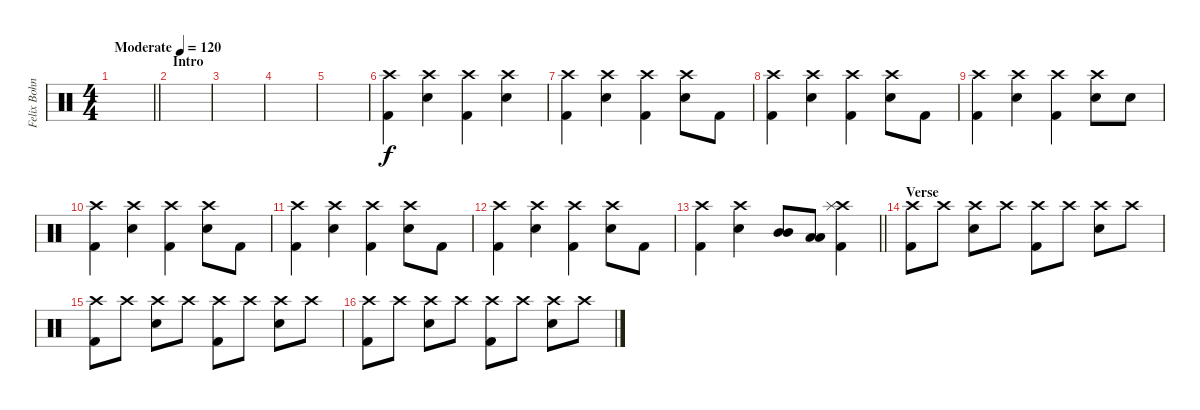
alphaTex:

\track ("Felix Bohnke (Drums)" "Felix Bohn") {instrument percussion}
\staff {score}
\articulation defaults
\ts (4 4)
\tempo (120 "Moderate")
\clef neutral
\barLineRight lightlight
\ks c
|
\section ("" "Intro")
|
|
|
|
("Crash high (hit)" "Kick (hit) 2").4 ("Crash high (hit)" "Snare (hit) 2").4 ("Crash high (hit)" "Kick (hit) 2").4 ("Crash high (hit)" "Snare (hit) 2").4 |
("Crash high (hit)" "Kick (hit) 2").4 ("Crash high (hit)" "Snare (hit) 2").4 ("Crash high (hit)" "Kick (hit) 2").4 ("Crash high (hit)" "Snare (hit) 2").8 "Kick (hit) 2".8 |
("Crash high (hit)" "Kick (hit) 2").4 ("Crash high (hit)" "Snare (hit) 2").4 ("Crash high (hit)" "Kick (hit) 2").4 ("Crash high (hit)" "Snare (hit) 2").8 "Kick (hit) 2".8 |
("Crash high (hit)" "Kick (hit) 2").4 ("Crash high (hit)" "Snare (hit) 2").4 ("Crash high (hit)" "Kick (hit) 2").4 ("Crash high (hit)" "Snare (hit) 2").8 "Snare (hit) 2".8 |
("Crash high (hit)" "Kick (hit) 2").4 ("Crash high (hit)" "Snare (hit) 2").4 ("Crash high (hit)" "Kick (hit) 2").4 ("Crash high (hit)" "Snare (hit) 2").8 "Kick (hit) 2".8 |
("Crash high (hit)" "Kick (hit) 2").4 ("Crash high (hit)" "Snare (hit) 2").4 ("Crash high (hit)" "Kick (hit) 2").4 ("Crash high (hit)" "Snare (hit) 2").8 "Kick (hit) 2".8 |
("Crash high (hit)" "Kick (hit) 2").4 ("Crash high (hit)" "Snare (hit) 2").4 ("Crash high (hit)" "Kick (hit) 2").4 ("Crash high (hit)" "Snare (hit) 2").8 "Kick (hit) 2".8 |
\barLineRight lightlight
("Crash high (hit)" "Kick (hit) 2").4 ("Crash high (hit)" "Snare (hit) 2").4 ("Mid Tom (hit)" "Mid Tom (hit)").8 ("Low Tom (hit)" "Low Tom (hit)").8 ("Crash high (hit)" "Splash (hit)" "Kick (hit) 2").4 |
\section ("" "Verse")
("Crash high (hit)" "Kick (hit) 2").8 "Crash high (hit)".8 ("Crash high (hit)" "Snare (hit) 2").8 "Crash high (hit)".8 ("Crash high (hit)" "Kick (hit) 2").8 "Crash high (hit)".8 ("Crash high (hit)" "Snare (hit) 2").8 "Crash high (hit)".8 |
("Crash high (hit)" "Kick (hit) 2").8 "Crash high (hit)".8 ("Crash high (hit)" "Snare (hit) 2").8 "Crash high (hit)".8 ("Crash high (hit)" "Kick (hit) 2").8 "Crash high (hit)".8 ("Crash high (hit)" "Snare (hit) 2").8 "Crash high (hit)".8 |
("Crash high (hit)" "Kick (hit) 2").8 "Crash high (hit)".8 ("Crash high (hit)" "Snare (hit) 2").8 "Crash high (hit)".8 ("Crash high (hit)" "Kick (hit) 2").8 "Crash high (hit)".8 ("Crash high (hit)" "Snare (hit) 2").8 "Crash high (hit)".8
